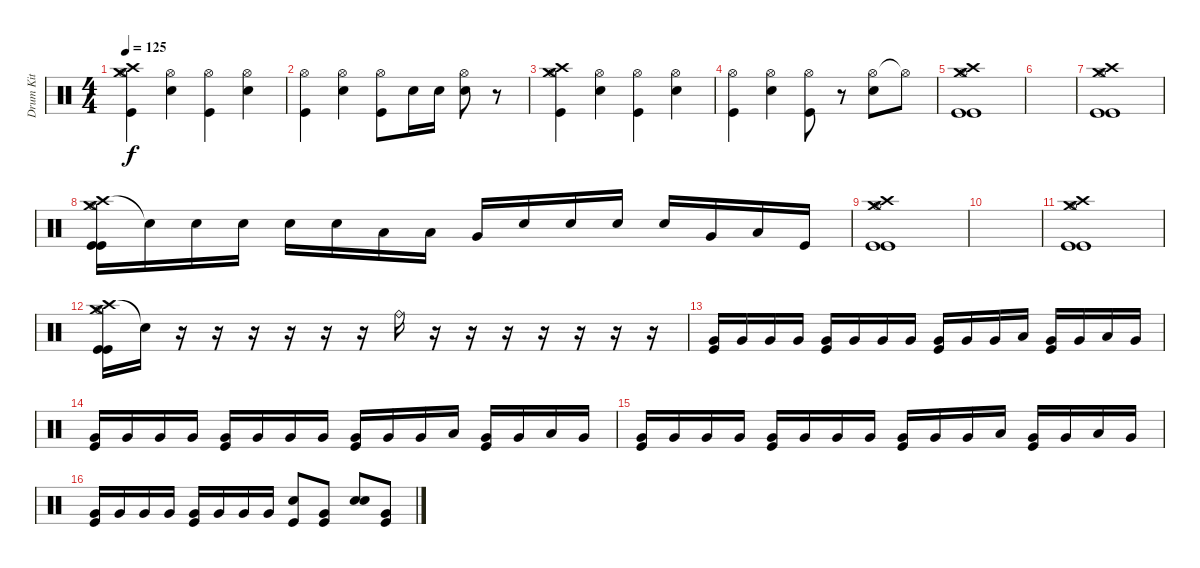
\track ("Drum Kit" "Drum Kit") {instrument percussion}
\staff {score}
\articulation defaults
\ts (4 4)
\tempo 125
\clef neutral
\ks c
("Crash high (hit)" "Hi-Hat (open)" "Crash medium (hit)" "Kick (hit)").4{dy f} ("Hi-Hat (open)" "Electric Snare (hit)").4 ("Hi-Hat (open)" "Kick (hit)").4 ("Hi-Hat (open)" "Electric Snare (hit)").4 |
("Hi-Hat (open)" "Kick (hit)").4 ("Hi-Hat (open)" "Electric Snare (hit)").4 ("Hi-Hat (open)" "Kick (hit)").8 "Electric Snare (hit)".16 "Electric Snare (hit)".16 ("Hi-Hat (open)" "Electric Snare (hit)").8 r.8 |
("Crash high (hit)" "Hi-Hat (open)" "Crash medium (hit)" "Kick (hit)").4 ("Hi-Hat (open)" "Electric Snare (hit)").4 ("Hi-Hat (open)" "Kick (hit)").4 ("Hi-Hat (open)" "Electric Snare (hit)").4 |
("Hi-Hat (open)" "Kick (hit)").4 ("Hi-Hat (open)" "Electric Snare (hit)").4 ("Hi-Hat (open)" "Kick (hit)").8 r.8 ("Hi-Hat (open)" "Electric Snare (hit)").8 "Hi-Hat (open)"{t}.8 |
("Crash high (hit)" "Crash medium (hit)" "Hi-Hat (open)" "Kick (hit)" "Kick (hit)").1 |
|
("Crash medium (hit)" "Hi-Hat (open)" "Crash high (hit)" "Kick (hit)" "Kick (hit)").1 |
("Crash high (hit)" "Crash medium (hit)" "Hi-Hat (open)" "Kick (hit)" "Kick (hit)").16 "Electric Snare (hit)"{t}.16 "Electric Snare (hit)".16 "Electric Snare (hit)".16 "Electric Snare (hit)".16 "Electric Snare (hit)".16 "Low Tom (hit)".16 "Low Tom (hit)".16 "Very Low Tom (hit)".16 "Electric Snare (hit)".16 "Electric Snare (hit)".16 "Electric Snare (hit)".16 "Electric Snare (hit)".16 "Very Low Tom (hit)".16 "Low Tom (hit)".16 "Kick (hit)".16 |
("Crash high (hit)" "Crash medium (hit)" "Hi-Hat (open)" "Kick (hit)" "Kick (hit)").1 |
|
("Crash medium (hit)" "Hi-Hat (open)" "Crash high (hit)" "Kick (hit)" "Kick (hit)").1 |
("Crash high (hit)" "Crash medium (hit)" "Hi-Hat (open)" "Kick (hit)" "Kick (hit)").16 "Electric Snare (hit)"{t}.16 r.16 r.16 r.16 r.16 r.16 r.16 "Ride (bell)".16 r.16 r.16 r.16 r.16 r.16 r.16 r.16 |
("Very Low Tom (hit)" "Kick (hit)").16 "Very Low Tom (hit)".16 "Very Low Tom (hit)".16 "Very Low Tom (hit)".16 ("Very Low Tom (hit)" "Kick (hit)").16 "Very Low Tom (hit)".16 "Very Low Tom (hit)".16 "Very Low Tom (hit)".16 ("Very Low Tom (hit)" "Kick (hit)").16 "Very Low Tom (hit)".16 "Very Low Tom (hit)".16 "Low Tom (hit)".16 ("Very Low Tom (hit)" "Kick (hit)").16 "Very Low Tom (hit)".16 "Low Tom (hit)".16 "Very Low Tom (hit)".16 |
("Very Low Tom (hit)" "Kick (hit)").16 "Very Low Tom (hit)".16 "Very Low Tom (hit)".16 "Very Low Tom (hit)".16 ("Very Low Tom (hit)" "Kick (hit)").16 "Very Low Tom (hit)".16 "Very Low Tom (hit)".16 "Very Low Tom (hit)".16 ("Very Low Tom (hit)" "Kick (hit)").16 "Very Low Tom (hit)".16 "Very Low Tom (hit)".16 "Low Tom (hit)".16 ("Very Low Tom (hit)" "Kick (hit)").16 "Very Low Tom (hit)".16 "Low Tom (hit)".16 "Very Low Tom (hit)".16 |
("Very Low Tom (hit)" "Kick (hit)").16 "Very Low Tom (hit)".16 "Very Low Tom (hit)".16 "Very Low Tom (hit)".16 ("Very Low Tom (hit)" "Kick (hit)").16 "Very Low Tom (hit)".16 "Very Low Tom (hit)".16 "Very Low Tom (hit)".16 ("Very Low Tom (hit)" "Kick (hit)").16 "Very Low Tom (hit)".16 "Very Low Tom (hit)".16 "Low Tom (hit)".16 ("Very Low Tom (hit)" "Kick (hit)").16 "Very Low Tom (hit)".16 "Low Tom (hit)".16 "Very Low Tom (hit)".16 |
("Very Low Tom (hit)" "Kick (hit)").16 "Very Low Tom (hit)".16 "Very Low Tom (hit)".16 "Very Low Tom (hit)".16 ("Very Low Tom (hit)" "Kick (hit)").16 "Very Low Tom (hit)".16 "Very Low Tom (hit)".16 "Very Low Tom (hit)".16 ("Electric Snare (hit)" "Kick (hit)").8 ("Very Low Tom (hit)" "Kick (hit)").8 ("Electric Snare (hit)" "Electric Snare (hit)").8 ("Very Low Tom (hit)" "Kick (hit)").8
